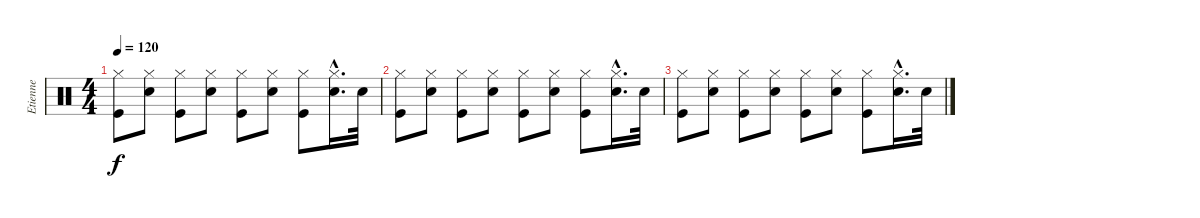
\track ("Etienne" "Etienne") {instrument percussion}
\staff {score}
\articulation defaults
\ts (4 4)
\tempo 120
\clef neutral
\ks c
("Hi-Hat (closed)" "Kick (hit)").8{dy f} ("Hi-Hat (closed)" "Snare (hit) 2").8 ("Hi-Hat (closed)" "Kick (hit)").8 ("Hi-Hat (closed)" "Snare (hit) 2").8 ("Hi-Hat (closed)" "Kick (hit)").8 ("Hi-Hat (closed)" "Snare (hit) 2").8 ("Hi-Hat (closed)" "Kick (hit)").8 ("Hi-Hat (closed)"{hac} "Snare (hit) 2"{hac}).16{d} "Snare (hit) 2".32 |
("Hi-Hat (closed)" "Kick (hit)").8 ("Hi-Hat (closed)" "Snare (hit) 2").8 ("Hi-Hat (closed)" "Kick (hit)").8 ("Hi-Hat (closed)" "Snare (hit) 2").8 ("Hi-Hat (closed)" "Kick (hit)").8 ("Hi-Hat (closed)" "Snare (hit) 2").8 ("Hi-Hat (closed)" "Kick (hit)").8 ("Hi-Hat (closed)"{hac} "Snare (hit) 2"{hac}).16{d} "Snare (hit) 2".32 |
("Hi-Hat (closed)" "Kick (hit)").8 ("Hi-Hat (closed)" "Snare (hit) 2").8 ("Hi-Hat (closed)" "Kick (hit)").8 ("Hi-Hat (closed)" "Snare (hit) 2").8 ("Hi-Hat (closed)" "Kick (hit)").8 ("Hi-Hat (closed)" "Snare (hit) 2").8 ("Hi-Hat (closed)" "Kick (hit)").8 ("Hi-Hat (closed)"{hac} "Snare (hit) 2"{hac}).16{d} "Snare (hit) 2".32
